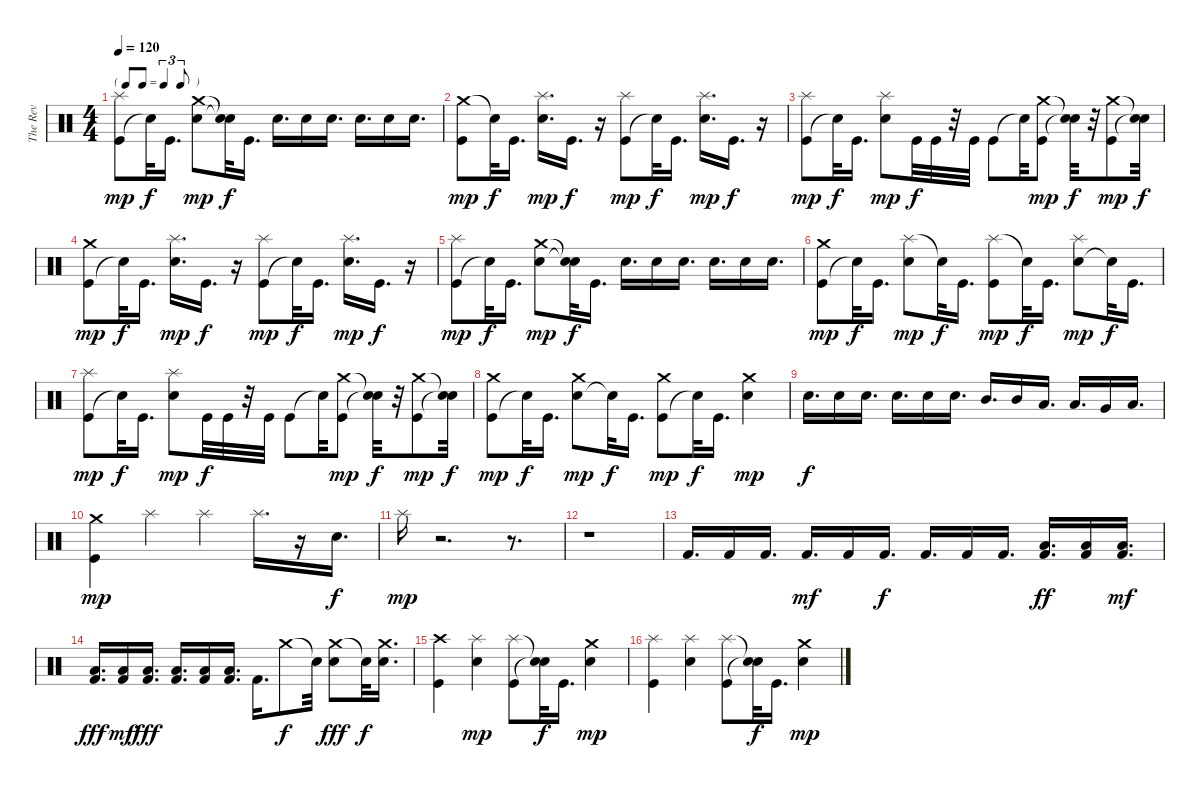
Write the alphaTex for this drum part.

\track ("The Rev" "The Rev") {instrument percussion}
\staff {score}
\articulation defaults
\ts (4 4)
\tf triplet8th
\tempo 120
\clef neutral
\ks c
("Kick (hit)" "Splash (hit)").8{dy mp} "Snare (hit)"{t}.32{dy f} "Kick (hit)".16{d} ("Electric Snare (hit)" "Crash medium (hit)").8{dy mp} ("Snare (hit)"{t} "Snare (hit)"{t}).32{dy f} "Kick (hit)".16{d} "Electric Snare (hit)".16{d} "Electric Snare (hit)".16 "Electric Snare (hit)".16{d} "Electric Snare (hit)".16{d} "Electric Snare (hit)".16 "Electric Snare (hit)".16{d} |
("Crash medium (hit)" "Kick (hit)").8{dy mp} "Snare (hit)"{t}.32{dy f} "Kick (hit)".16{d} ("Splash (hit)" "Electric Snare (hit)").16{d dy mp} "Kick (hit)".16{d dy f} r.16 ("Kick (hit)" "Splash (hit)").8{dy mp} "Snare (hit)"{t}.32{dy f} "Kick (hit)".16{d} ("Electric Snare (hit)" "Splash (hit)").16{d dy mp} "Kick (hit)".16{d dy f} r.16 |
("Kick (hit)" "Splash (hit)").8{dy mp} "Snare (hit)"{t}.32{dy f} "Kick (hit)".16{d} ("Electric Snare (hit)" "Splash (hit)").8{dy mp} "Kick (hit)".32{dy f} "Kick (hit)".32 r.32 "Kick (hit)".32 "Kick (hit)".8 "Snare (hit)"{t}.32 ("Kick (hit)" "Crash medium (hit)").8{dy mp} ("Snare (hit)"{t} "Snare (hit)"{t}).32{dy f} r.32 ("Kick (hit)" "Crash medium (hit)").8{dy mp} ("Snare (hit)"{t} "Snare (hit)"{t}).32{dy f} |
("Kick (hit)" "Crash medium (hit)").8{dy mp} "Snare (hit)"{t}.32{dy f} "Kick (hit)".16{d} ("Electric Snare (hit)" "Splash (hit)").16{d dy mp} "Kick (hit)".16{d dy f} r.16 ("Kick (hit)" "Splash (hit)").8{dy mp} "Snare (hit)"{t}.32{dy f} "Kick (hit)".16{d} ("Electric Snare (hit)" "Splash (hit)").16{d dy mp} "Kick (hit)".16{d dy f} r.16 |
("Kick (hit)" "Splash (hit)").8{dy mp} "Snare (hit)"{t}.32{dy f} "Kick (hit)".16{d} ("Crash medium (hit)" "Electric Snare (hit)").8{dy mp} ("Snare (hit)"{t} "Snare (hit)"{t}).32{dy f} "Kick (hit)".16{d} "Electric Snare (hit)".16{d} "Electric Snare (hit)".16 "Electric Snare (hit)".16{d} "Electric Snare (hit)".16{d} "Electric Snare (hit)".16 "Electric Snare (hit)".16{d} |
("Kick (hit)" "Crash medium (hit)").8{dy mp} "Snare (hit)"{t}.32{dy f} "Kick (hit)".16{d} ("Splash (hit)" "Electric Snare (hit)").8{dy mp} "Snare (hit)"{t}.32{dy f} "Kick (hit)".16{d} ("Splash (hit)" "Kick (hit)").8{dy mp} "Snare (hit)"{t}.32{dy f} "Kick (hit)".16{d} ("Electric Snare (hit)" "Splash (hit)").8{dy mp} "Snare (hit)"{t}.32{dy f} "Kick (hit)".16{d} |
("Kick (hit)" "Splash (hit)").8{dy mp} "Snare (hit)"{t}.32{dy f} "Kick (hit)".16{d} ("Electric Snare (hit)" "Splash (hit)").8{dy mp} "Kick (hit)".32{dy f} "Kick (hit)".32 r.32 "Kick (hit)".32 "Kick (hit)".8 "Snare (hit)"{t}.32 ("Kick (hit)" "Crash medium (hit)").8{dy mp} ("Snare (hit)"{t} "Snare (hit)"{t}).32{dy f} r.32 ("Kick (hit)" "Crash medium (hit)").8{dy mp} ("Snare (hit)"{t} "Snare (hit)"{t}).32{dy f} |
("Kick (hit)" "Crash medium (hit)").8{dy mp} "Snare (hit)"{t}.32{dy f} "Kick (hit)".16{d} ("Electric Snare (hit)" "Crash medium (hit)").8{dy mp} "Snare (hit)"{t}.32{dy f} "Kick (hit)".16{d} ("Kick (hit)" "Crash medium (hit)").8{dy mp} "Snare (hit)"{t}.32{dy f} "Kick (hit)".16{d} ("Electric Snare (hit)" "Crash medium (hit)").4{dy mp} |
"Electric Snare (hit)".16{d dy f} "Electric Snare (hit)".16 "Electric Snare (hit)".16{d} "Electric Snare (hit)".16{d} "Electric Snare (hit)".16 "Electric Snare (hit)".16{d} "Mid Tom (hit)".16{d} "Mid Tom (hit)".16 "Low Tom (hit)".16{d} "Low Tom (hit)".16{d} "Very Low Tom (hit)".16 "Low Floor Tom (hit)".16{d} |
("Kick (hit)" "Crash medium (hit)").4{dy mp} "Splash (hit)".4 "Splash (hit)".4 "Splash (hit)".16{d} r.16 "Electric Snare (hit)".16{d dy f} |
"Splash (hit)".16{dy mp} r.2{d} r.8{d} |
r.1 |
"Kick (hit) 2".16{d} "Kick (hit) 2".16 "Kick (hit) 2".16{d} "Kick (hit) 2".16{d dy mf} "Kick (hit) 2".16 "Kick (hit) 2".16{d dy f} "Kick (hit) 2".16{d} "Kick (hit) 2".16 "Kick (hit) 2".16{d} ("Low Floor Tom (hit)" "Kick (hit) 2").16{d dy ff} ("Low Floor Tom (hit)" "Kick (hit) 2").16 ("Kick (hit) 2" "Low Floor Tom (hit)").16{d dy mf} |
("Low Floor Tom (hit)" "Kick (hit) 2").16{d dy fff} ("Kick (hit) 2" "Low Floor Tom (hit)").16{dy mf} ("Low Floor Tom (hit)" "Kick (hit) 2").16{d dy fff} ("Low Floor Tom (hit)" "Kick (hit) 2").16{d} ("Low Floor Tom (hit)" "Kick (hit) 2").16 ("Low Floor Tom (hit)" "Kick (hit) 2").16{d} "Kick (hit) 2".16{d} "Crash medium (hit)".8{dy f} "Snare (hit)"{t}.32 ("Crash medium (hit)" "Snare (hit) 2").8{dy fff} "Snare (hit)"{t}.32{dy f} ("Snare (hit) 2" "Crash medium (hit)").16{d} |
("Kick (hit)" "Crash high (hit)").4 ("Electric Snare (hit)" "Splash (hit)").4{dy mp} ("Kick (hit)" "Splash (hit)").8 ("Snare (hit)"{t} "Snare (hit)"{t}).32{dy f} "Kick (hit)".16{d} ("Electric Snare (hit)" "Crash medium (hit)").4{dy mp} |
("Kick (hit)" "Splash (hit)").4 ("Electric Snare (hit)" "Splash (hit)").4 ("Kick (hit)" "Splash (hit)").8 ("Snare (hit)"{t} "Snare (hit)"{t}).32{dy f} "Kick (hit)".16{d} ("Electric Snare (hit)" "Crash medium (hit)").4{dy mp}
